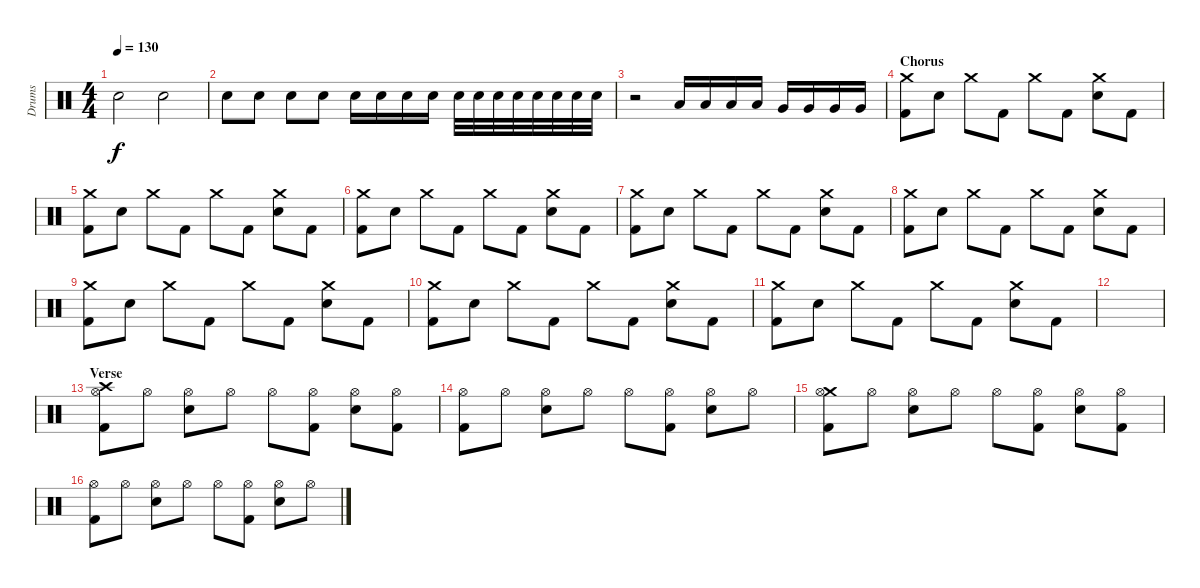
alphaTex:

\track ("Drums" "Drums") {instrument percussion}
\staff {score}
\articulation defaults
\ts (4 4)
\tempo 130
\clef neutral
\ks c "Electric Snare (hit)".2{dy f} "Electric Snare (hit)".2
|
"Electric Snare (hit)".8 "Electric Snare (hit)".8 "Electric Snare (hit)".8 "Electric Snare (hit)".8 "Electric Snare (hit)".16 "Electric Snare (hit)".16 "Electric Snare (hit)".16 "Electric Snare (hit)".16 "Electric Snare (hit)".32 "Electric Snare (hit)".32 "Electric Snare (hit)".32 "Electric Snare (hit)".32 "Electric Snare (hit)".32 "Electric Snare (hit)".32 "Electric Snare (hit)".32 "Electric Snare (hit)".32 |
r.2 "Low Tom (hit)".16 "Low Tom (hit)".16 "Low Tom (hit)".16 "Low Tom (hit)".16 "Very Low Tom (hit)".16 "Very Low Tom (hit)".16 "Very Low Tom (hit)".16 "Very Low Tom (hit)".16 |
\section ("" "Chorus")
("Crash medium (hit)" "Kick (hit) 2").8 "Electric Snare (hit)".8 "Crash medium (hit)".8 "Kick (hit) 2".8 "Crash medium (hit)".8 "Kick (hit) 2".8 ("Crash medium (hit)" "Electric Snare (hit)").8 "Kick (hit) 2".8 |
("Crash medium (hit)" "Kick (hit) 2").8 "Electric Snare (hit)".8 "Crash medium (hit)".8 "Kick (hit) 2".8 "Crash medium (hit)".8 "Kick (hit) 2".8 ("Crash medium (hit)" "Electric Snare (hit)").8 "Kick (hit) 2".8 |
("Crash medium (hit)" "Kick (hit) 2").8 "Electric Snare (hit)".8 "Crash medium (hit)".8 "Kick (hit) 2".8 "Crash medium (hit)".8 "Kick (hit) 2".8 ("Crash medium (hit)" "Electric Snare (hit)").8 "Kick (hit) 2".8 |
("Crash medium (hit)" "Kick (hit) 2").8 "Electric Snare (hit)".8 "Crash medium (hit)".8 "Kick (hit) 2".8 "Crash medium (hit)".8 "Kick (hit) 2".8 ("Crash medium (hit)" "Electric Snare (hit)").8 "Kick (hit) 2".8 |
("Crash medium (hit)" "Kick (hit) 2").8 "Electric Snare (hit)".8 "Crash medium (hit)".8 "Kick (hit) 2".8 "Crash medium (hit)".8 "Kick (hit) 2".8 ("Crash medium (hit)" "Electric Snare (hit)").8 "Kick (hit) 2".8 |
("Crash medium (hit)" "Kick (hit) 2").8 "Electric Snare (hit)".8 "Crash medium (hit)".8 "Kick (hit) 2".8 "Crash medium (hit)".8 "Kick (hit) 2".8 ("Crash medium (hit)" "Electric Snare (hit)").8 "Kick (hit) 2".8 |
("Crash medium (hit)" "Kick (hit) 2").8 "Electric Snare (hit)".8 "Crash medium (hit)".8 "Kick (hit) 2".8 "Crash medium (hit)".8 "Kick (hit) 2".8 ("Crash medium (hit)" "Electric Snare (hit)").8 "Kick (hit) 2".8 |
("Crash medium (hit)" "Kick (hit) 2").8 "Electric Snare (hit)".8 "Crash medium (hit)".8 "Kick (hit) 2".8 "Crash medium (hit)".8 "Kick (hit) 2".8 ("Crash medium (hit)" "Electric Snare (hit)").8 "Kick (hit) 2".8 |
|
\section ("" "Verse")
("Crash high (hit)" "Hi-Hat (open)" "Kick (hit) 2").8 "Hi-Hat (open)".8 ("Hi-Hat (open)" "Electric Snare (hit)").8 "Hi-Hat (open)".8 "Hi-Hat (open)".8 ("Hi-Hat (open)" "Kick (hit) 2").8 ("Hi-Hat (open)" "Electric Snare (hit)").8 ("Hi-Hat (open)" "Kick (hit) 2").8 |
("Hi-Hat (open)" "Kick (hit) 2").8 "Hi-Hat (open)".8 ("Hi-Hat (open)" "Electric Snare (hit)").8 "Hi-Hat (open)".8 "Hi-Hat (open)".8 ("Hi-Hat (open)" "Kick (hit) 2").8 ("Hi-Hat (open)" "Electric Snare (hit)").8 "Hi-Hat (open)".8 |
("Crash medium (hit)" "Hi-Hat (open)" "Kick (hit) 2").8 "Hi-Hat (open)".8 ("Hi-Hat (open)" "Electric Snare (hit)").8 "Hi-Hat (open)".8 "Hi-Hat (open)".8 ("Hi-Hat (open)" "Kick (hit) 2").8 ("Hi-Hat (open)" "Electric Snare (hit)").8 ("Hi-Hat (open)" "Kick (hit) 2").8 |
("Hi-Hat (open)" "Kick (hit) 2").8 "Hi-Hat (open)".8 ("Hi-Hat (open)" "Electric Snare (hit)").8 "Hi-Hat (open)".8 "Hi-Hat (open)".8 ("Hi-Hat (open)" "Kick (hit) 2").8 ("Hi-Hat (open)" "Electric Snare (hit)").8 "Hi-Hat (open)".8
